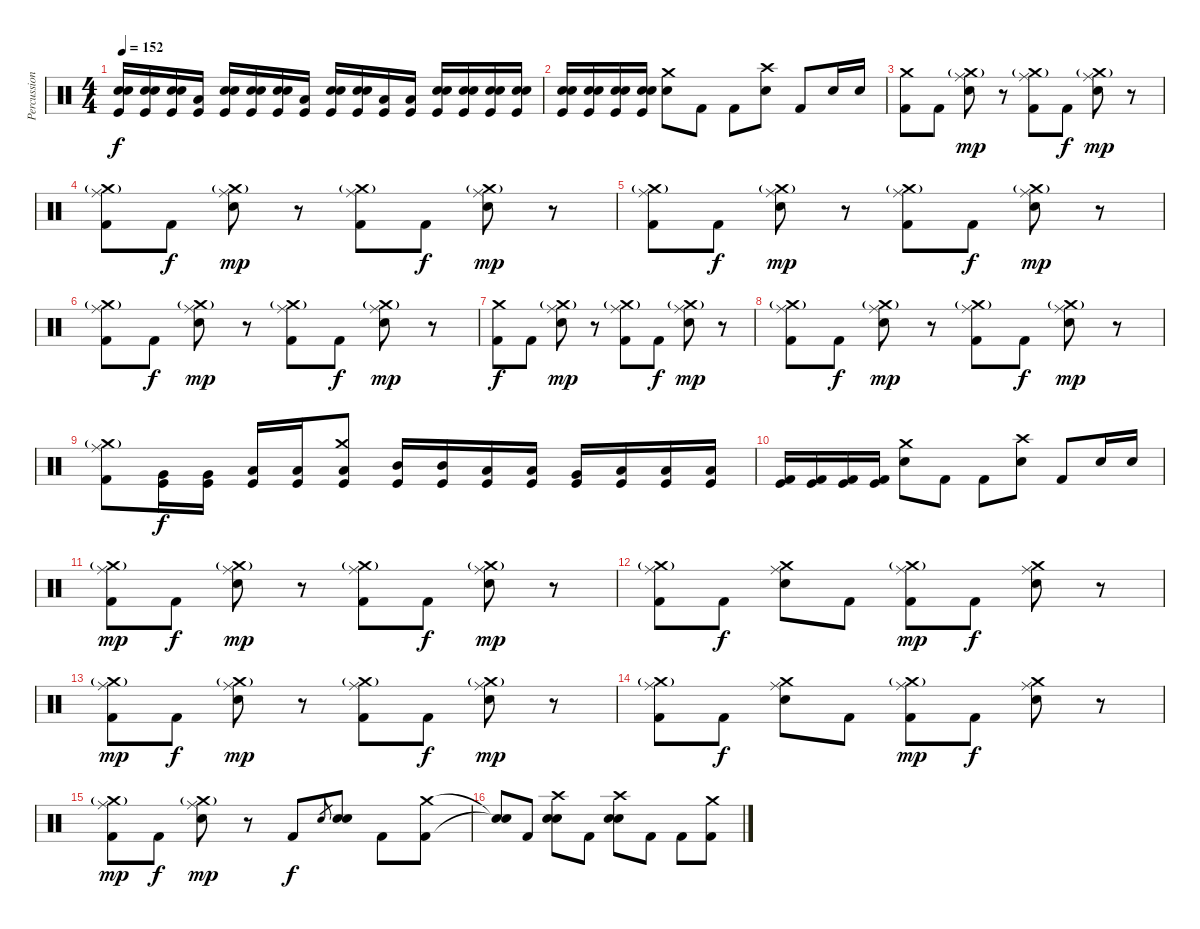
\track ("Percussion" "Percussion") {instrument percussion}
\staff {score}
\articulation defaults
\ts (4 4)
\tempo 152
\clef neutral
\ks c
("Snare (hit) 2" "Electric Snare (hit)" "Kick (hit)").16{dy f} ("Snare (hit) 2" "Electric Snare (hit)" "Kick (hit)").16 ("Snare (hit) 2" "Electric Snare (hit)" "Kick (hit)").16 ("Low Tom (hit)" "Kick (hit)").16 ("Snare (hit) 2" "Electric Snare (hit)" "Kick (hit)").16 ("Snare (hit) 2" "Electric Snare (hit)" "Kick (hit)").16 ("Snare (hit) 2" "Electric Snare (hit)" "Kick (hit)").16 ("Low Tom (hit)" "Kick (hit)").16 ("Snare (hit) 2" "Electric Snare (hit)" "Kick (hit)").16 ("Snare (hit) 2" "Electric Snare (hit)" "Kick (hit)").16 ("Low Tom (hit)" "Kick (hit)").16 ("Low Tom (hit)" "Kick (hit)").16 ("Snare (hit) 2" "Electric Snare (hit)" "Kick (hit)").16 ("Snare (hit) 2" "Electric Snare (hit)" "Kick (hit)").16 ("Snare (hit) 2" "Electric Snare (hit)" "Kick (hit)").16 ("Snare (hit) 2" "Electric Snare (hit)" "Kick (hit)").16 |
("Snare (hit) 2" "Electric Snare (hit)" "Kick (hit)").16 ("Snare (hit) 2" "Electric Snare (hit)" "Kick (hit)").16 ("Snare (hit) 2" "Electric Snare (hit)" "Kick (hit)").16 ("Snare (hit) 2" "Electric Snare (hit)" "Kick (hit)").16 ("Crash medium (hit)" "Electric Snare (hit)").8 "Kick (hit) 2".8 "Kick (hit) 2".8 ("Crash high (hit)" "Electric Snare (hit)").8 "Kick (hit) 2".8 "Electric Snare (hit)".16 "Electric Snare (hit)".16 |
("Crash medium (hit)" "Kick (hit) 2").8 "Kick (hit) 2".8 ("Crash medium (hit)"{g} "Ride (middle)" "Electric Snare (hit)").8{dy mp} r.8 ("Crash medium (hit)"{g} "Ride (middle)" "Kick (hit) 2").8 "Kick (hit) 2".8{dy f} ("Crash medium (hit)"{g} "Ride (middle)" "Electric Snare (hit)").8{dy mp} r.8 |
("Crash medium (hit)"{g} "Ride (middle)" "Kick (hit) 2").8 "Kick (hit) 2".8{dy f} ("Crash medium (hit)"{g} "Ride (middle)" "Electric Snare (hit)").8{dy mp} r.8 ("Crash medium (hit)"{g} "Ride (middle)" "Kick (hit) 2").8 "Kick (hit) 2".8{dy f} ("Crash medium (hit)"{g} "Ride (middle)" "Electric Snare (hit)").8{dy mp} r.8 |
("Crash medium (hit)"{g} "Ride (middle)" "Kick (hit) 2").8 "Kick (hit) 2".8{dy f} ("Crash medium (hit)"{g} "Ride (middle)" "Electric Snare (hit)").8{dy mp} r.8 ("Crash medium (hit)"{g} "Ride (middle)" "Kick (hit) 2").8 "Kick (hit) 2".8{dy f} ("Crash medium (hit)"{g} "Ride (middle)" "Electric Snare (hit)").8{dy mp} r.8 |
("Crash medium (hit)"{g} "Ride (middle)" "Kick (hit) 2").8 "Kick (hit) 2".8{dy f} ("Crash medium (hit)"{g} "Ride (middle)" "Electric Snare (hit)").8{dy mp} r.8 ("Crash medium (hit)"{g} "Ride (middle)" "Kick (hit) 2").8 "Kick (hit) 2".8{dy f} ("Crash medium (hit)"{g} "Ride (middle)" "Electric Snare (hit)").8{dy mp} r.8 |
("Crash medium (hit)" "Kick (hit) 2").8{dy f} "Kick (hit) 2".8 ("Crash medium (hit)"{g} "Ride (middle)" "Electric Snare (hit)").8{dy mp} r.8 ("Crash medium (hit)"{g} "Ride (middle)" "Kick (hit) 2").8 "Kick (hit) 2".8{dy f} ("Crash medium (hit)"{g} "Ride (middle)" "Electric Snare (hit)").8{dy mp} r.8 |
("Crash medium (hit)"{g} "Ride (middle)" "Kick (hit) 2").8 "Kick (hit) 2".8{dy f} ("Crash medium (hit)"{g} "Ride (middle)" "Electric Snare (hit)").8{dy mp} r.8 ("Crash medium (hit)"{g} "Ride (middle)" "Kick (hit) 2").8 "Kick (hit) 2".8{dy f} ("Crash medium (hit)"{g} "Ride (middle)" "Electric Snare (hit)").8{dy mp} r.8 |
("Crash medium (hit)"{g} "Ride (middle)" "Kick (hit) 2").8 ("Very Low Tom (hit)" "Kick (hit)").16{dy f} ("Very Low Tom (hit)" "Kick (hit)").16 ("Low Floor Tom (hit)" "Kick (hit)").16 ("Low Floor Tom (hit)" "Kick (hit)").16 ("Crash medium (hit)" "Low Floor Tom (hit)" "Kick (hit)").8 ("Mid Tom (hit)" "Kick (hit)").16 ("Mid Tom (hit)" "Kick (hit)").16 ("Low Tom (hit)" "Kick (hit)").16 ("Low Tom (hit)" "Kick (hit)").16 ("Very Low Tom (hit)" "Kick (hit)").16 ("Low Floor Tom (hit)" "Kick (hit)").16 ("Low Floor Tom (hit)" "Kick (hit)").16 ("Low Floor Tom (hit)" "Kick (hit)").16 |
("Kick (hit)" "Kick (hit) 2").16 ("Kick (hit)" "Kick (hit) 2").16 ("Kick (hit)" "Kick (hit) 2").16 ("Kick (hit)" "Kick (hit) 2").16 ("Crash medium (hit)" "Electric Snare (hit)").8 "Kick (hit) 2".8 "Kick (hit) 2".8 ("Crash high (hit)" "Electric Snare (hit)").8 "Kick (hit) 2".8 "Electric Snare (hit)".16 "Electric Snare (hit)".16 |
("Crash medium (hit)"{g} "Ride (middle)" "Kick (hit) 2").8{dy mp} "Kick (hit) 2".8{dy f} ("Crash medium (hit)"{g} "Ride (middle)" "Electric Snare (hit)").8{dy mp} r.8 ("Crash medium (hit)"{g} "Ride (middle)" "Kick (hit) 2").8 "Kick (hit) 2".8{dy f} ("Crash medium (hit)"{g} "Ride (middle)" "Electric Snare (hit)").8{dy mp} r.8 |
("Crash medium (hit)"{g} "Ride (middle)" "Kick (hit) 2").8 "Kick (hit) 2".8{dy f} ("Crash medium (hit)" "Ride (middle)" "Electric Snare (hit)").8 "Kick (hit) 2".8 ("Crash medium (hit)"{g} "Ride (middle)" "Kick (hit) 2").8{dy mp} "Kick (hit) 2".8{dy f} ("Crash medium (hit)" "Ride (middle)" "Electric Snare (hit)").8 r.8 |
("Crash medium (hit)"{g} "Ride (middle)" "Kick (hit) 2").8{dy mp} "Kick (hit) 2".8{dy f} ("Crash medium (hit)"{g} "Ride (middle)" "Electric Snare (hit)").8{dy mp} r.8 ("Crash medium (hit)"{g} "Ride (middle)" "Kick (hit) 2").8 "Kick (hit) 2".8{dy f} ("Crash medium (hit)"{g} "Ride (middle)" "Electric Snare (hit)").8{dy mp} r.8 |
("Crash medium (hit)"{g} "Ride (middle)" "Kick (hit) 2").8 "Kick (hit) 2".8{dy f} ("Crash medium (hit)" "Ride (middle)" "Electric Snare (hit)").8 "Kick (hit) 2".8 ("Crash medium (hit)"{g} "Ride (middle)" "Kick (hit) 2").8{dy mp} "Kick (hit) 2".8{dy f} ("Crash medium (hit)" "Ride (middle)" "Electric Snare (hit)").8 r.8 |
("Crash medium (hit)"{g} "Ride (middle)" "Kick (hit) 2").8{dy mp} "Kick (hit) 2".8{dy f} ("Crash medium (hit)"{g} "Ride (middle)" "Electric Snare (hit)").8{dy mp} r.8 "Kick (hit) 2".8{dy f} "Snare (hit) 2".8{gr} ("Snare (hit) 2" "Electric Snare (hit)").8 "Kick (hit) 2".8 ("Crash medium (hit)" "Kick (hit) 2").8 |
("Snare (hit)"{t} "Snare (hit)"{t}).8 "Kick (hit) 2".8 ("Crash high (hit)" "Snare (hit) 2" "Electric Snare (hit)").8 "Kick (hit) 2".8 ("Crash high (hit)" "Snare (hit) 2" "Electric Snare (hit)").8 "Kick (hit) 2".8 "Kick (hit) 2".8 ("Crash medium (hit)" "Kick (hit) 2").8
